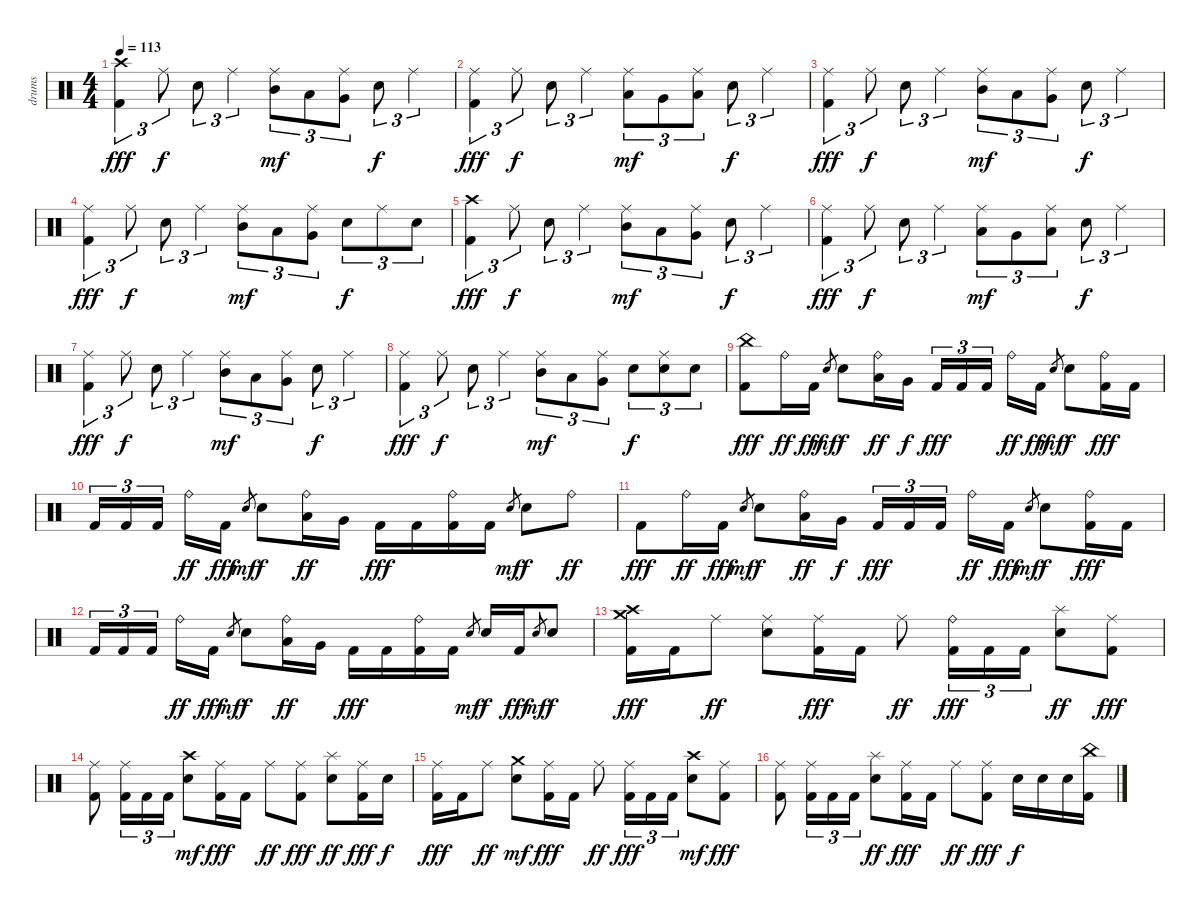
\track ("drums" "drums") {instrument percussion}
\staff {score}
\articulation defaults
\ts (4 4)
\tempo 113
\clef neutral
\ks c
("Crash high (hit)" "Kick (hit) 2").4{tu (3 2) dy fff} "Ride (middle)".8{tu (3 2) dy f} "Electric Snare (hit)".8{tu (3 2)} "Ride (middle)".4{tu (3 2)} ("Ride (middle)" "Mid Tom (hit)").8{tu (3 2) dy mf} "Low Tom (hit)".8{tu (3 2)} ("Ride (middle)" "Very Low Tom (hit)").8{tu (3 2)} "Electric Snare (hit)".8{tu (3 2) dy f} "Ride (middle)".4{tu (3 2)} |
("Ride (middle)" "Kick (hit) 2").4{tu (3 2) dy fff} "Ride (middle)".8{tu (3 2) dy f} "Electric Snare (hit)".8{tu (3 2)} "Ride (middle)".4{tu (3 2)} ("Ride (middle)" "Low Tom (hit)").8{tu (3 2) dy mf} "Very Low Tom (hit)".8{tu (3 2)} ("Ride (middle)" "Low Floor Tom (hit)").8{tu (3 2)} "Electric Snare (hit)".8{tu (3 2) dy f} "Ride (middle)".4{tu (3 2)} |
("Ride (middle)" "Kick (hit) 2").4{tu (3 2) dy fff} "Ride (middle)".8{tu (3 2) dy f} "Electric Snare (hit)".8{tu (3 2)} "Ride (middle)".4{tu (3 2)} ("Ride (middle)" "Mid Tom (hit)").8{tu (3 2) dy mf} "Low Tom (hit)".8{tu (3 2)} ("Ride (middle)" "Very Low Tom (hit)").8{tu (3 2)} "Electric Snare (hit)".8{tu (3 2) dy f} "Ride (middle)".4{tu (3 2)} |
("Ride (middle)" "Kick (hit) 2").4{tu (3 2) dy fff} "Ride (middle)".8{tu (3 2) dy f} "Electric Snare (hit)".8{tu (3 2)} "Ride (middle)".4{tu (3 2)} ("Ride (middle)" "Mid Tom (hit)").8{tu (3 2) dy mf} "Low Tom (hit)".8{tu (3 2)} ("Ride (middle)" "Very Low Tom (hit)").8{tu (3 2)} "Electric Snare (hit)".8{tu (3 2) dy f} "Ride (middle)".8{tu (3 2)} "Electric Snare (hit)".8{tu (3 2)} |
("Crash high (hit)" "Kick (hit) 2").4{tu (3 2) dy fff} "Ride (middle)".8{tu (3 2) dy f} "Electric Snare (hit)".8{tu (3 2)} "Ride (middle)".4{tu (3 2)} ("Ride (middle)" "Mid Tom (hit)").8{tu (3 2) dy mf} "Low Tom (hit)".8{tu (3 2)} ("Ride (middle)" "Very Low Tom (hit)").8{tu (3 2)} "Electric Snare (hit)".8{tu (3 2) dy f} "Ride (middle)".4{tu (3 2)} |
("Ride (middle)" "Kick (hit) 2").4{tu (3 2) dy fff} "Ride (middle)".8{tu (3 2) dy f} "Electric Snare (hit)".8{tu (3 2)} "Ride (middle)".4{tu (3 2)} ("Ride (middle)" "Low Tom (hit)").8{tu (3 2) dy mf} "Very Low Tom (hit)".8{tu (3 2)} ("Ride (middle)" "Low Floor Tom (hit)").8{tu (3 2)} "Electric Snare (hit)".8{tu (3 2) dy f} "Ride (middle)".4{tu (3 2)} |
("Ride (middle)" "Kick (hit) 2").4{tu (3 2) dy fff} "Ride (middle)".8{tu (3 2) dy f} "Electric Snare (hit)".8{tu (3 2)} "Ride (middle)".4{tu (3 2)} ("Ride (middle)" "Mid Tom (hit)").8{tu (3 2) dy mf} "Low Tom (hit)".8{tu (3 2)} ("Ride (middle)" "Very Low Tom (hit)").8{tu (3 2)} "Electric Snare (hit)".8{tu (3 2) dy f} "Ride (middle)".4{tu (3 2)} |
("Ride (middle)" "Kick (hit) 2").4{tu (3 2) dy fff} "Ride (middle)".8{tu (3 2) dy f} "Electric Snare (hit)".8{tu (3 2)} "Ride (middle)".4{tu (3 2)} ("Ride (middle)" "Mid Tom (hit)").8{tu (3 2) dy mf} "Low Tom (hit)".8{tu (3 2)} ("Ride (middle)" "Very Low Tom (hit)").8{tu (3 2)} "Electric Snare (hit)".8{tu (3 2) dy f} ("Ride (middle)" "Electric Snare (hit)").8{tu (3 2)} "Electric Snare (hit)".8{tu (3 2)} |
("China (hit)" "Kick (hit) 2").8{dy fff} "Ride (bell)".16{dy ff} "Kick (hit) 2".16{dy fff} "Electric Snare (hit)".8{gr dy mf} "Electric Snare (hit)".8{dy f} ("Ride (bell)" "Low Tom (hit)").16{dy ff} "Very Low Tom (hit)".16{dy f} "Kick (hit) 2".16{tu (3 2) dy fff} "Kick (hit) 2".16{tu (3 2)} "Kick (hit) 2".16{tu (3 2)} "Ride (bell)".16{dy ff} "Kick (hit) 2".16{dy fff} "Electric Snare (hit)".8{gr dy mf} "Electric Snare (hit)".8{dy f} ("Ride (bell)" "Kick (hit) 2").16{dy fff} "Kick (hit) 2".16 |
"Kick (hit) 2".16{tu (3 2)} "Kick (hit) 2".16{tu (3 2)} "Kick (hit) 2".16{tu (3 2)} "Ride (bell)".16{dy ff} "Kick (hit) 2".16{dy fff} "Electric Snare (hit)".8{gr dy mf} "Electric Snare (hit)".8{dy f} ("Ride (bell)" "Low Tom (hit)").16{dy ff} "Very Low Tom (hit)".16 "Kick (hit) 2".16{dy fff} "Kick (hit) 2".16 ("Ride (bell)" "Kick (hit) 2").16 "Kick (hit) 2".16 "Electric Snare (hit)".8{gr dy mf} "Electric Snare (hit)".8{dy f} "Ride (bell)".8{dy ff} |
"Kick (hit) 2".8{dy fff} "Ride (bell)".16{dy ff} "Kick (hit) 2".16{dy fff} "Electric Snare (hit)".8{gr dy mf} "Electric Snare (hit)".8{dy f} ("Ride (bell)" "Low Tom (hit)").16{dy ff} "Very Low Tom (hit)".16{dy f} "Kick (hit) 2".16{tu (3 2) dy fff} "Kick (hit) 2".16{tu (3 2)} "Kick (hit) 2".16{tu (3 2)} "Ride (bell)".16{dy ff} "Kick (hit) 2".16{dy fff} "Electric Snare (hit)".8{gr dy mf} "Electric Snare (hit)".8{dy f} ("Ride (bell)" "Kick (hit) 2").16{dy fff} "Kick (hit) 2".16 |
"Kick (hit) 2".16{tu (3 2)} "Kick (hit) 2".16{tu (3 2)} "Kick (hit) 2".16{tu (3 2)} "Ride (bell)".16{dy ff} "Kick (hit) 2".16{dy fff} "Electric Snare (hit)".8{gr dy mf} "Electric Snare (hit)".8{dy f} ("Ride (bell)" "Low Tom (hit)").16{dy ff} "Very Low Tom (hit)".16 "Kick (hit) 2".16{dy fff} "Kick (hit) 2".16 ("Ride (bell)" "Kick (hit) 2").16 "Kick (hit) 2".16 "Electric Snare (hit)".8{gr dy mf} "Electric Snare (hit)".16{dy f} "Kick (hit) 2".16{dy fff} "Electric Snare (hit)".8{gr dy mf} "Electric Snare (hit)".8{dy f} |
("Crash medium (hit)" "Crash high (hit)" "Kick (hit) 2").16{dy fff} "Kick (hit) 2".16 "Ride (middle)".8{dy ff} ("Ride (middle)" "Electric Snare (hit)").8 ("Ride (middle)" "Kick (hit) 2").16{dy fff} "Kick (hit) 2".16 "Ride (middle)".8{dy ff} ("Ride (bell)" "Kick (hit) 2").16{tu (3 2) dy fff} "Kick (hit) 2".16{tu (3 2)} "Kick (hit) 2".16{tu (3 2)} ("Splash (hit)" "Electric Snare (hit)").8{dy ff} ("Ride (middle)" "Kick (hit) 2").8{dy fff} |
("Ride (middle)" "Kick (hit) 2").8 ("Ride (middle)" "Kick (hit) 2").16{tu (3 2)} "Kick (hit) 2".16{tu (3 2)} "Kick (hit) 2".16{tu (3 2)} ("Crash high (hit)" "Electric Snare (hit)").8{dy mf} ("Ride (middle)" "Kick (hit) 2").16{dy fff} "Kick (hit) 2".16 "Ride (middle)".8{dy ff} ("Ride (middle)" "Kick (hit) 2").8{dy fff} ("Splash (hit)" "Electric Snare (hit)").8{dy ff} ("Ride (middle)" "Kick (hit) 2").16{dy fff} "Electric Snare (hit)".16{dy f} |
("Ride (middle)" "Kick (hit) 2").16{dy fff} "Kick (hit) 2".16 "Ride (middle)".8{dy ff} ("Crash medium (hit)" "Electric Snare (hit)").8{dy mf} ("Ride (middle)" "Kick (hit) 2").16{dy fff} "Kick (hit) 2".16 "Ride (middle)".8{dy ff} ("Ride (middle)" "Kick (hit) 2").16{tu (3 2) dy fff} "Kick (hit) 2".16{tu (3 2)} "Kick (hit) 2".16{tu (3 2)} ("Crash high (hit)" "Electric Snare (hit)").8{dy mf} ("Ride (middle)" "Kick (hit) 2").8{dy fff} |
("Ride (middle)" "Kick (hit) 2").8 ("Ride (middle)" "Kick (hit) 2").16{tu (3 2)} "Kick (hit) 2".16{tu (3 2)} "Kick (hit) 2".16{tu (3 2)} ("Splash (hit)" "Electric Snare (hit)").8{dy ff} ("Ride (middle)" "Kick (hit) 2").16{dy fff} "Kick (hit) 2".16 "Ride (middle)".8{dy ff} ("Ride (middle)" "Kick (hit) 2").8{dy fff} "Electric Snare (hit)".16{dy f} "Electric Snare (hit)".16 "Electric Snare (hit)".16 ("China (hit)" "Kick (hit) 2").16
